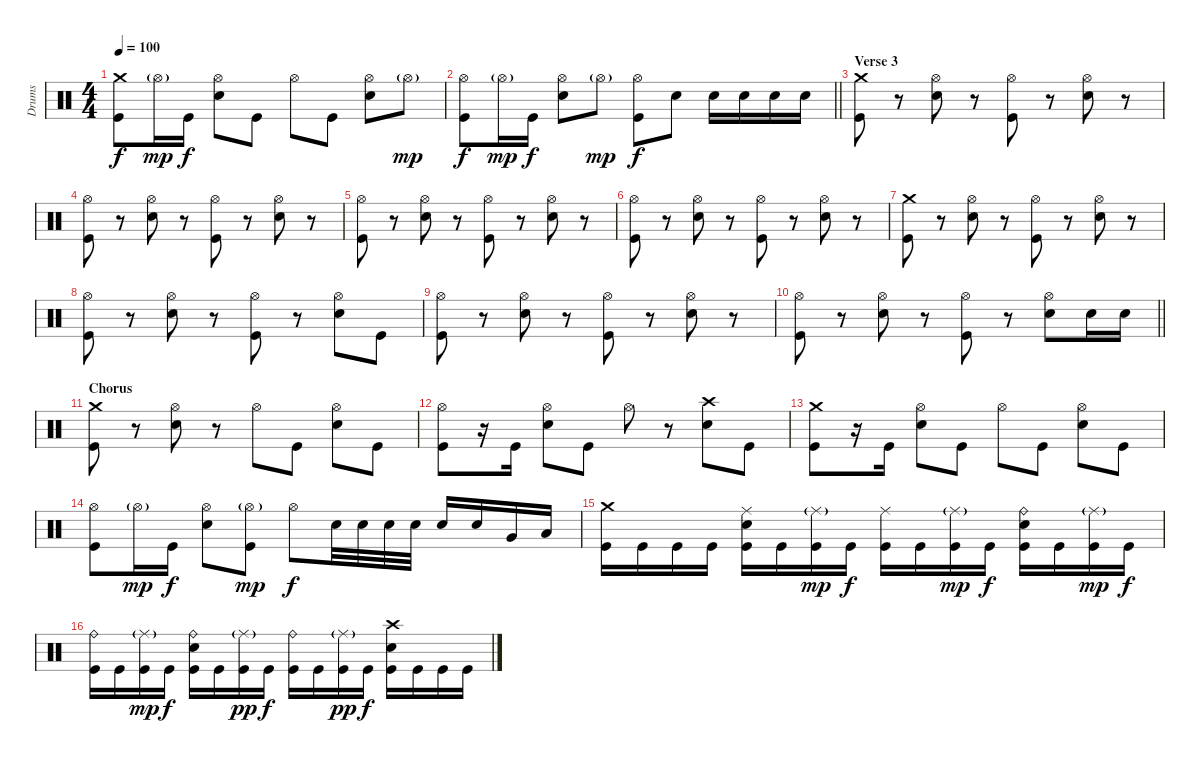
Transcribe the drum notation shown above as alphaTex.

\track ("Drums" "Drums") {instrument percussion}
\staff {score}
\articulation defaults
\ts (4 4)
\tempo 100
\clef neutral
\ks c
("Crash medium (hit)" "Kick (hit)").8{dy f} "Hi-Hat (open)"{g}.16{dy mp} "Kick (hit)".16{dy f} ("Hi-Hat (open)" "Electric Snare (hit)").8 "Kick (hit)".8 "Hi-Hat (open)".8 "Kick (hit)".8 ("Hi-Hat (open)" "Electric Snare (hit)").8 "Hi-Hat (open)"{g}.8{dy mp} |
\barLineRight lightlight
("Hi-Hat (open)" "Kick (hit)").8{dy f} "Hi-Hat (open)"{g}.16{dy mp} "Kick (hit)".16{dy f} ("Hi-Hat (open)" "Electric Snare (hit)").8 "Hi-Hat (open)"{g}.8{dy mp} ("Hi-Hat (open)" "Kick (hit)").8{dy f} "Electric Snare (hit)".8 "Electric Snare (hit)".16 "Electric Snare (hit)".16 "Electric Snare (hit)".16 "Electric Snare (hit)".16 |
\section ("" "Verse 3")
("Crash medium (hit)" "Kick (hit)").8 r.8 ("Hi-Hat (open)" "Electric Snare (hit)").8 r.8 ("Hi-Hat (open)" "Kick (hit)").8 r.8 ("Hi-Hat (open)" "Electric Snare (hit)").8 r.8 |
("Hi-Hat (open)" "Kick (hit)").8 r.8 ("Hi-Hat (open)" "Electric Snare (hit)").8 r.8 ("Hi-Hat (open)" "Kick (hit)").8 r.8 ("Hi-Hat (open)" "Electric Snare (hit)").8 r.8 |
("Hi-Hat (open)" "Kick (hit)").8 r.8 ("Hi-Hat (open)" "Electric Snare (hit)").8 r.8 ("Hi-Hat (open)" "Kick (hit)").8 r.8 ("Hi-Hat (open)" "Electric Snare (hit)").8 r.8 |
("Hi-Hat (open)" "Kick (hit)").8 r.8 ("Hi-Hat (open)" "Electric Snare (hit)").8 r.8 ("Hi-Hat (open)" "Kick (hit)").8 r.8 ("Hi-Hat (open)" "Electric Snare (hit)").8 r.8 |
("Crash medium (hit)" "Kick (hit)").8 r.8 ("Hi-Hat (open)" "Electric Snare (hit)").8 r.8 ("Hi-Hat (open)" "Kick (hit)").8 r.8 ("Hi-Hat (open)" "Electric Snare (hit)").8 r.8 |
("Hi-Hat (open)" "Kick (hit)").8 r.8 ("Hi-Hat (open)" "Electric Snare (hit)").8 r.8 ("Hi-Hat (open)" "Kick (hit)").8 r.8 ("Hi-Hat (open)" "Electric Snare (hit)").8 "Kick (hit)".8 |
("Hi-Hat (open)" "Kick (hit)").8 r.8 ("Hi-Hat (open)" "Electric Snare (hit)").8 r.8 ("Hi-Hat (open)" "Kick (hit)").8 r.8 ("Hi-Hat (open)" "Electric Snare (hit)").8 r.8 |
\barLineRight lightlight
("Hi-Hat (open)" "Kick (hit)").8 r.8 ("Hi-Hat (open)" "Electric Snare (hit)").8 r.8 ("Hi-Hat (open)" "Kick (hit)").8 r.8 ("Hi-Hat (open)" "Electric Snare (hit)").8 "Electric Snare (hit)".16 "Electric Snare (hit)".16 |
\section ("" "Chorus")
("Crash medium (hit)" "Kick (hit)").8 r.8 ("Hi-Hat (open)" "Electric Snare (hit)").8 r.8 "Hi-Hat (open)".8 "Kick (hit)".8 ("Hi-Hat (open)" "Electric Snare (hit)").8 "Kick (hit)".8 |
("Hi-Hat (open)" "Kick (hit)").8 r.16 "Kick (hit)".16 ("Hi-Hat (open)" "Electric Snare (hit)").8 "Kick (hit)".8 "Hi-Hat (open)".8 r.8 ("Crash high (hit)" "Electric Snare (hit)").8 "Kick (hit)".8 |
("Crash medium (hit)" "Kick (hit)").8 r.16 "Kick (hit)".16 ("Hi-Hat (open)" "Electric Snare (hit)").8 "Kick (hit)".8 "Hi-Hat (open)".8 "Kick (hit)".8 ("Hi-Hat (open)" "Electric Snare (hit)").8 "Kick (hit)".8 |
("Hi-Hat (open)" "Kick (hit)").8 "Hi-Hat (open)"{g}.16{dy mp} "Kick (hit)".16{dy f} ("Hi-Hat (open)" "Electric Snare (hit)").8 ("Hi-Hat (open)"{g} "Kick (hit)").8{dy mp} "Hi-Hat (open)".8{dy f} "Electric Snare (hit)".32 "Electric Snare (hit)".32 "Electric Snare (hit)".32 "Electric Snare (hit)".32 "Electric Snare (hit)".16 "Electric Snare (hit)".16 "Very Low Tom (hit)".16 "Low Floor Tom (hit)".16 |
("Crash medium (hit)" "Kick (hit)").16 "Kick (hit)".16 "Kick (hit)".16 "Kick (hit)".16 ("Ride (middle)" "Electric Snare (hit)" "Kick (hit)").16 "Kick (hit)".16 ("Ride (middle)"{g} "Kick (hit)").16{dy mp} "Kick (hit)".16{dy f} ("Ride (middle)" "Kick (hit)").16 "Kick (hit)".16 ("Ride (middle)"{g} "Kick (hit)").16{dy mp} "Kick (hit)".16{dy f} ("Ride (bell)" "Electric Snare (hit)" "Kick (hit)").16 "Kick (hit)".16 ("Ride (middle)"{g} "Kick (hit)").16{dy mp} "Kick (hit)".16{dy f} |
("Ride (bell)" "Kick (hit)").16 "Kick (hit)".16 ("Ride (middle)"{g} "Kick (hit)").16{dy mp} "Kick (hit)".16{dy f} ("Ride (bell)" "Electric Snare (hit)" "Kick (hit)").16 "Kick (hit)".16 ("Ride (middle)"{g} "Kick (hit)").16{dy pp} "Kick (hit)".16{dy f} ("Ride (bell)" "Kick (hit)").16 "Kick (hit)".16 ("Ride (middle)"{g} "Kick (hit)").16{dy pp} "Kick (hit)".16{dy f} ("Crash high (hit)" "Electric Snare (hit)" "Kick (hit)").16 "Kick (hit)".16 "Kick (hit)".16 "Kick (hit)".16
